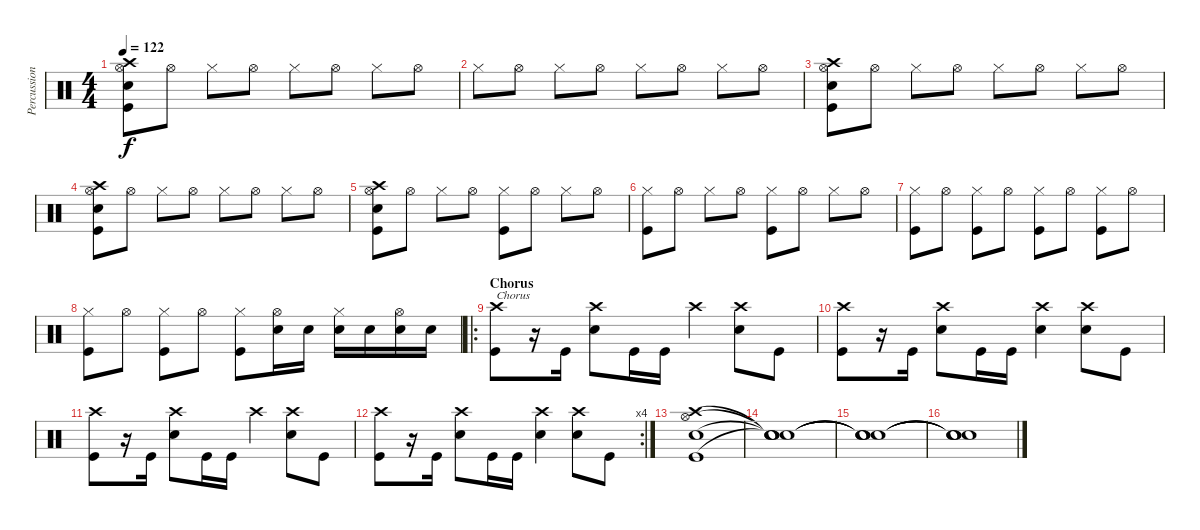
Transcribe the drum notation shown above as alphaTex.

\track ("Percussion" "Percussion") {instrument percussion}
\staff {score}
\articulation defaults
\ts (4 4)
\tempo 122
\clef neutral
\ks c
("Crash high (hit)" "Hi-Hat (open)" "Snare (hit) 2" "Kick (hit)").8{dy f} "Hi-Hat (open)".8 "Hi-Hat (closed)".8 "Hi-Hat (open)".8 "Hi-Hat (closed)".8 "Hi-Hat (open)".8 "Hi-Hat (closed)".8 "Hi-Hat (open)".8 |
"Hi-Hat (closed)".8 "Hi-Hat (open)".8 "Hi-Hat (closed)".8 "Hi-Hat (open)".8 "Hi-Hat (closed)".8 "Hi-Hat (open)".8 "Hi-Hat (closed)".8 "Hi-Hat (open)".8 |
("Crash high (hit)" "Hi-Hat (open)" "Snare (hit) 2" "Kick (hit)").8 "Hi-Hat (open)".8 "Hi-Hat (closed)".8 "Hi-Hat (open)".8 "Hi-Hat (closed)".8 "Hi-Hat (open)".8 "Hi-Hat (closed)".8 "Hi-Hat (open)".8 |
("Crash high (hit)" "Hi-Hat (open)" "Snare (hit) 2" "Kick (hit)").8 "Hi-Hat (open)".8 "Hi-Hat (closed)".8 "Hi-Hat (open)".8 "Hi-Hat (closed)".8 "Hi-Hat (open)".8 "Hi-Hat (closed)".8 "Hi-Hat (open)".8 |
("Crash high (hit)" "Hi-Hat (open)" "Snare (hit) 2" "Kick (hit)").8 "Hi-Hat (open)".8 "Hi-Hat (closed)".8 "Hi-Hat (open)".8 ("Hi-Hat (closed)" "Kick (hit)").8 "Hi-Hat (open)".8 "Hi-Hat (closed)".8 "Hi-Hat (open)".8 |
("Hi-Hat (closed)" "Kick (hit)").8 "Hi-Hat (open)".8 "Hi-Hat (closed)".8 "Hi-Hat (open)".8 ("Hi-Hat (closed)" "Kick (hit)").8 "Hi-Hat (open)".8 "Hi-Hat (closed)".8 "Hi-Hat (open)".8 |
("Hi-Hat (closed)" "Kick (hit)").8 "Hi-Hat (open)".8 ("Hi-Hat (closed)" "Kick (hit)").8 "Hi-Hat (open)".8 ("Hi-Hat (closed)" "Kick (hit)").8 "Hi-Hat (open)".8 ("Hi-Hat (closed)" "Kick (hit)").8 "Hi-Hat (open)".8 |
("Hi-Hat (closed)" "Kick (hit)").8 "Hi-Hat (open)".8 ("Hi-Hat (closed)" "Kick (hit)").8 "Hi-Hat (open)".8 ("Hi-Hat (closed)" "Kick (hit)").8 ("Hi-Hat (open)" "Snare (hit) 2").16 "Snare (hit) 2".16 ("Hi-Hat (closed)" "Snare (hit) 2").16 "Snare (hit) 2".16 ("Hi-Hat (open)" "Snare (hit) 2").16 "Snare (hit) 2".16 |
\ro
\section ("" "Chorus")
("Crash high (hit)" "Kick (hit)").8{txt "Chorus"} r.16 "Kick (hit)".16 ("Crash high (hit)" "Snare (hit) 2").8 "Kick (hit)".16 "Kick (hit)".16 "Crash high (hit)".4 ("Crash high (hit)" "Snare (hit) 2").8 "Kick (hit)".8 |
("Crash high (hit)" "Kick (hit)").8 r.16 "Kick (hit)".16 ("Crash high (hit)" "Snare (hit) 2").8 "Kick (hit)".16 "Kick (hit)".16 ("Crash high (hit)" "Snare (hit) 2").4 ("Crash high (hit)" "Snare (hit) 2").8 "Kick (hit)".8 |
("Crash high (hit)" "Kick (hit)").8 r.16 "Kick (hit)".16 ("Crash high (hit)" "Snare (hit) 2").8 "Kick (hit)".16 "Kick (hit)".16 "Crash high (hit)".4 ("Crash high (hit)" "Snare (hit) 2").8 "Kick (hit)".8 |
\rc 4
("Crash high (hit)" "Kick (hit)").8 r.16 "Kick (hit)".16 ("Crash high (hit)" "Snare (hit) 2").8 "Kick (hit)".16 "Kick (hit)".16 ("Crash high (hit)" "Snare (hit) 2").4 ("Crash high (hit)" "Snare (hit) 2").8 "Kick (hit)".8 |
("Crash high (hit)" "Hi-Hat (open)" "Snare (hit) 2" "Kick (hit)").1 |
("Snare (hit)"{t} "Snare (hit)"{t} "Snare (hit)"{t} "Snare (hit)"{t}).1 |
("Snare (hit)"{t} "Snare (hit)"{t} "Snare (hit)"{t} "Snare (hit)"{t}).1 |
("Snare (hit)"{t} "Snare (hit)"{t} "Snare (hit)"{t} "Snare (hit)"{t}).1
